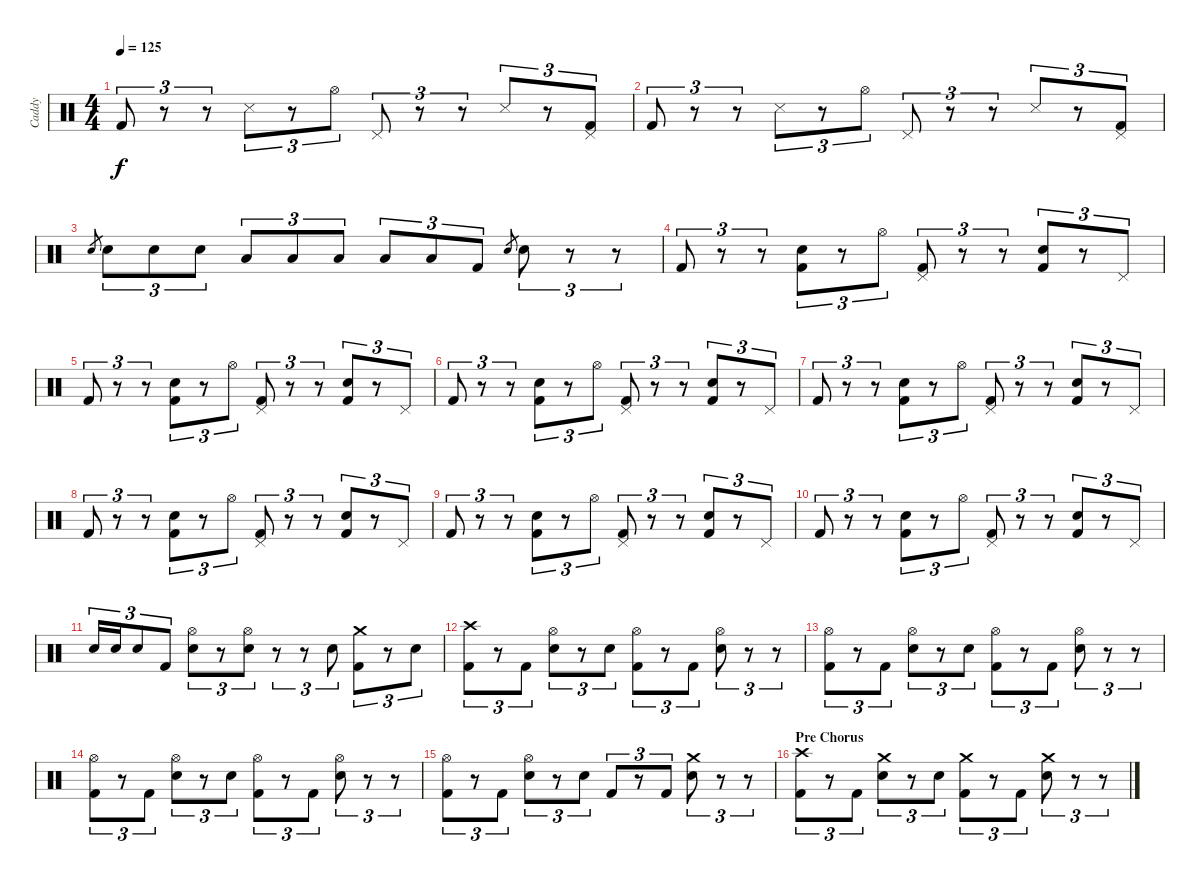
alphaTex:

\track ("Caddy" "Caddy") {instrument percussion}
\staff {score}
\articulation defaults
\ts (4 4)
\tempo 125
\clef neutral
\ks c "Kick (hit) 2".8{tu (3 2) dy f}
r.8{tu (3 2)} r.8{tu (3 2)} "Snare (side stick) 3".8{tu (3 2)} r.8{tu (3 2)} "Hi-Hat (open)".8{tu (3 2)} "Pedal Hi-Hat (hit)".8{tu (3 2)} r.8{tu (3 2)} r.8{tu (3 2)} "Snare (side stick) 3".8{tu (3 2)} r.8{tu (3 2)} ("Pedal Hi-Hat (hit)" "Kick (hit) 2").8{tu (3 2)} |
"Kick (hit) 2".8{tu (3 2)} r.8{tu (3 2)} r.8{tu (3 2)} "Snare (side stick) 3".8{tu (3 2)} r.8{tu (3 2)} "Hi-Hat (open)".8{tu (3 2)} "Pedal Hi-Hat (hit)".8{tu (3 2)} r.8{tu (3 2)} r.8{tu (3 2)} "Snare (side stick) 3".8{tu (3 2)} r.8{tu (3 2)} ("Pedal Hi-Hat (hit)" "Kick (hit) 2").8{tu (3 2)} |
"Electric Snare (hit)".8{gr} "Electric Snare (hit)".8{tu (3 2)} "Electric Snare (hit)".8{tu (3 2)} "Electric Snare (hit)".8{tu (3 2)} "Low Tom (hit)".8{tu (3 2)} "Low Tom (hit)".8{tu (3 2)} "Low Tom (hit)".8{tu (3 2)} "Low Floor Tom (hit)".8{tu (3 2)} "Low Floor Tom (hit)".8{tu (3 2)} "Kick (hit) 2".8{tu (3 2)} "Electric Snare (hit)".8{gr} "Electric Snare (hit)".8{tu (3 2)} r.8{tu (3 2)} r.8{tu (3 2)} |
"Kick (hit) 2".8{tu (3 2)} r.8{tu (3 2)} r.8{tu (3 2)} ("Electric Snare (hit)" "Kick (hit) 2").8{tu (3 2)} r.8{tu (3 2)} "Hi-Hat (open)".8{tu (3 2)} ("Pedal Hi-Hat (hit)" "Kick (hit) 2").8{tu (3 2)} r.8{tu (3 2)} r.8{tu (3 2)} ("Electric Snare (hit)" "Kick (hit) 2").8{tu (3 2)} r.8{tu (3 2)} "Pedal Hi-Hat (hit)".8{tu (3 2)} |
"Kick (hit) 2".8{tu (3 2)} r.8{tu (3 2)} r.8{tu (3 2)} ("Electric Snare (hit)" "Kick (hit) 2").8{tu (3 2)} r.8{tu (3 2)} "Hi-Hat (open)".8{tu (3 2)} ("Pedal Hi-Hat (hit)" "Kick (hit) 2").8{tu (3 2)} r.8{tu (3 2)} r.8{tu (3 2)} ("Electric Snare (hit)" "Kick (hit) 2").8{tu (3 2)} r.8{tu (3 2)} "Pedal Hi-Hat (hit)".8{tu (3 2)} |
"Kick (hit) 2".8{tu (3 2)} r.8{tu (3 2)} r.8{tu (3 2)} ("Electric Snare (hit)" "Kick (hit) 2").8{tu (3 2)} r.8{tu (3 2)} "Hi-Hat (open)".8{tu (3 2)} ("Pedal Hi-Hat (hit)" "Kick (hit) 2").8{tu (3 2)} r.8{tu (3 2)} r.8{tu (3 2)} ("Electric Snare (hit)" "Kick (hit) 2").8{tu (3 2)} r.8{tu (3 2)} "Pedal Hi-Hat (hit)".8{tu (3 2)} |
"Kick (hit) 2".8{tu (3 2)} r.8{tu (3 2)} r.8{tu (3 2)} ("Electric Snare (hit)" "Kick (hit) 2").8{tu (3 2)} r.8{tu (3 2)} "Hi-Hat (open)".8{tu (3 2)} ("Pedal Hi-Hat (hit)" "Kick (hit) 2").8{tu (3 2)} r.8{tu (3 2)} r.8{tu (3 2)} ("Electric Snare (hit)" "Kick (hit) 2").8{tu (3 2)} r.8{tu (3 2)} "Pedal Hi-Hat (hit)".8{tu (3 2)} |
"Kick (hit) 2".8{tu (3 2)} r.8{tu (3 2)} r.8{tu (3 2)} ("Electric Snare (hit)" "Kick (hit) 2").8{tu (3 2)} r.8{tu (3 2)} "Hi-Hat (open)".8{tu (3 2)} ("Pedal Hi-Hat (hit)" "Kick (hit) 2").8{tu (3 2)} r.8{tu (3 2)} r.8{tu (3 2)} ("Electric Snare (hit)" "Kick (hit) 2").8{tu (3 2)} r.8{tu (3 2)} "Pedal Hi-Hat (hit)".8{tu (3 2)} |
"Kick (hit) 2".8{tu (3 2)} r.8{tu (3 2)} r.8{tu (3 2)} ("Electric Snare (hit)" "Kick (hit) 2").8{tu (3 2)} r.8{tu (3 2)} "Hi-Hat (open)".8{tu (3 2)} ("Pedal Hi-Hat (hit)" "Kick (hit) 2").8{tu (3 2)} r.8{tu (3 2)} r.8{tu (3 2)} ("Electric Snare (hit)" "Kick (hit) 2").8{tu (3 2)} r.8{tu (3 2)} "Pedal Hi-Hat (hit)".8{tu (3 2)} |
"Kick (hit) 2".8{tu (3 2)} r.8{tu (3 2)} r.8{tu (3 2)} ("Electric Snare (hit)" "Kick (hit) 2").8{tu (3 2)} r.8{tu (3 2)} "Hi-Hat (open)".8{tu (3 2)} ("Pedal Hi-Hat (hit)" "Kick (hit) 2").8{tu (3 2)} r.8{tu (3 2)} r.8{tu (3 2)} ("Electric Snare (hit)" "Kick (hit) 2").8{tu (3 2)} r.8{tu (3 2)} "Pedal Hi-Hat (hit)".8{tu (3 2)} |
"Electric Snare (hit)".16{tu (3 2)} "Electric Snare (hit)".16{tu (3 2)} "Electric Snare (hit)".8{tu (3 2)} "Kick (hit) 2".8{tu (3 2)} ("Hi-Hat (open)" "Electric Snare (hit)").8{tu (3 2)} r.8{tu (3 2)} ("Hi-Hat (open)" "Electric Snare (hit)").8{tu (3 2)} r.8{tu (3 2)} r.8{tu (3 2)} "Electric Snare (hit)".8{tu (3 2)} ("Crash medium (hit)" "Kick (hit) 2").8{tu (3 2)} r.8{tu (3 2)} "Electric Snare (hit)".8{tu (3 2)} |
("Crash high (hit)" "Kick (hit) 2").8{tu (3 2)} r.8{tu (3 2)} "Kick (hit) 2".8{tu (3 2)} ("Hi-Hat (open)" "Electric Snare (hit)").8{tu (3 2)} r.8{tu (3 2)} "Electric Snare (hit)".8{tu (3 2)} ("Hi-Hat (open)" "Kick (hit) 2").8{tu (3 2)} r.8{tu (3 2)} "Kick (hit) 2".8{tu (3 2)} ("Hi-Hat (open)" "Electric Snare (hit)").8{tu (3 2)} r.8{tu (3 2)} r.8{tu (3 2)} |
("Hi-Hat (open)" "Kick (hit) 2").8{tu (3 2)} r.8{tu (3 2)} "Kick (hit) 2".8{tu (3 2)} ("Hi-Hat (open)" "Electric Snare (hit)").8{tu (3 2)} r.8{tu (3 2)} "Electric Snare (hit)".8{tu (3 2)} ("Hi-Hat (open)" "Kick (hit) 2").8{tu (3 2)} r.8{tu (3 2)} "Kick (hit) 2".8{tu (3 2)} ("Hi-Hat (open)" "Electric Snare (hit)").8{tu (3 2)} r.8{tu (3 2)} r.8{tu (3 2)} |
("Hi-Hat (open)" "Kick (hit) 2").8{tu (3 2)} r.8{tu (3 2)} "Kick (hit) 2".8{tu (3 2)} ("Hi-Hat (open)" "Electric Snare (hit)").8{tu (3 2)} r.8{tu (3 2)} "Electric Snare (hit)".8{tu (3 2)} ("Hi-Hat (open)" "Kick (hit) 2").8{tu (3 2)} r.8{tu (3 2)} "Kick (hit) 2".8{tu (3 2)} ("Hi-Hat (open)" "Electric Snare (hit)").8{tu (3 2)} r.8{tu (3 2)} r.8{tu (3 2)} |
("Hi-Hat (open)" "Kick (hit) 2").8{tu (3 2)} r.8{tu (3 2)} "Kick (hit) 2".8{tu (3 2)} ("Hi-Hat (open)" "Electric Snare (hit)").8{tu (3 2)} r.8{tu (3 2)} "Electric Snare (hit)".8{tu (3 2)} "Kick (hit) 2".8{tu (3 2)} r.8{tu (3 2)} "Kick (hit) 2".8{tu (3 2)} ("Crash medium (hit)" "Electric Snare (hit)").8{tu (3 2)} r.8{tu (3 2)} r.8{tu (3 2)} |
\section ("" "Pre Chorus")
("Crash high (hit)" "Kick (hit) 2").8{tu (3 2)} r.8{tu (3 2)} "Kick (hit) 2".8{tu (3 2)} ("Crash medium (hit)" "Electric Snare (hit)").8{tu (3 2)} r.8{tu (3 2)} "Electric Snare (hit)".8{tu (3 2)} ("Crash medium (hit)" "Kick (hit) 2").8{tu (3 2)} r.8{tu (3 2)} "Kick (hit) 2".8{tu (3 2)} ("Crash medium (hit)" "Electric Snare (hit)").8{tu (3 2)} r.8{tu (3 2)} r.8{tu (3 2)}
